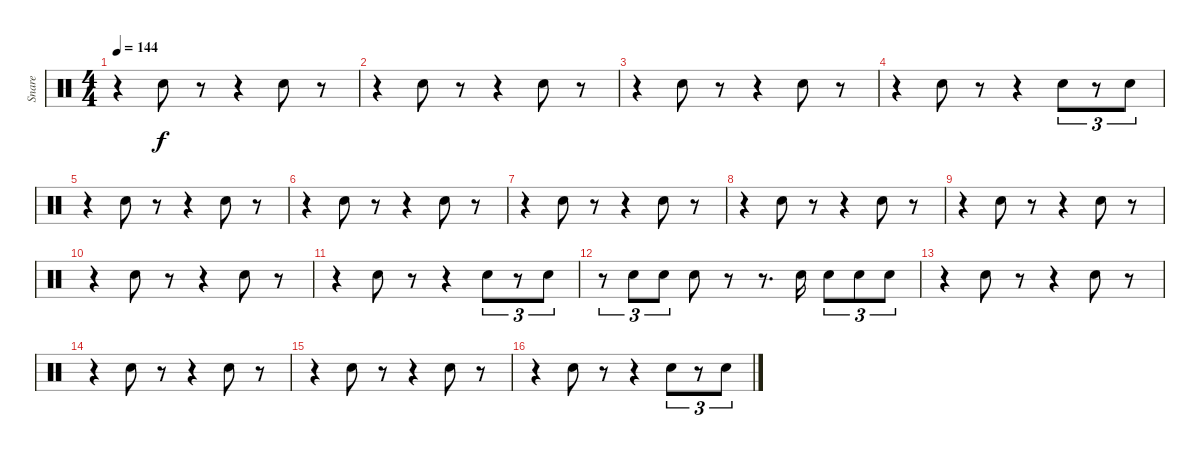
\track ("Snare" "Snare") {instrument percussion}
\staff {score}
\articulation defaults
\ts (4 4)
\tempo 144
\clef neutral
\ks c
r.4{dy f} "Snare (hit) 2".8 r.8 r.4 "Snare (hit) 2".8 r.8 |
r.4 "Snare (hit) 2".8 r.8 r.4 "Snare (hit) 2".8 r.8 |
r.4 "Snare (hit) 2".8 r.8 r.4 "Snare (hit) 2".8 r.8 |
r.4 "Snare (hit) 2".8 r.8 r.4 "Snare (hit) 2".8{tu (3 2)} r.8{tu (3 2)} "Snare (hit) 2".8{tu (3 2)} |
r.4 "Snare (hit) 2".8 r.8 r.4 "Snare (hit) 2".8 r.8 |
r.4 "Snare (hit) 2".8 r.8 r.4 "Snare (hit) 2".8 r.8 |
r.4 "Snare (hit) 2".8 r.8 r.4 "Snare (hit) 2".8 r.8 |
r.4 "Snare (hit) 2".8 r.8 r.4 "Snare (hit) 2".8 r.8 |
r.4 "Snare (hit) 2".8 r.8 r.4 "Snare (hit) 2".8 r.8 |
r.4 "Snare (hit) 2".8 r.8 r.4 "Snare (hit) 2".8 r.8 |
r.4 "Snare (hit) 2".8 r.8 r.4 "Snare (hit) 2".8{tu (3 2)} r.8{tu (3 2)} "Snare (hit) 2".8{tu (3 2)} |
r.8{tu (3 2)} "Snare (hit) 2".8{tu (3 2)} "Snare (hit) 2".8{tu (3 2)} "Snare (hit) 2".8 r.8 r.8{d} "Snare (hit) 2".16 "Snare (hit) 2".8{tu (3 2)} "Snare (hit) 2".8{tu (3 2)} "Snare (hit) 2".8{tu (3 2)} |
r.4 "Snare (hit) 2".8 r.8 r.4 "Snare (hit) 2".8 r.8 |
r.4 "Snare (hit) 2".8 r.8 r.4 "Snare (hit) 2".8 r.8 |
r.4 "Snare (hit) 2".8 r.8 r.4 "Snare (hit) 2".8 r.8 |
r.4 "Snare (hit) 2".8 r.8 r.4 "Snare (hit) 2".8{tu (3 2)} r.8{tu (3 2)} "Snare (hit) 2".8{tu (3 2)}
